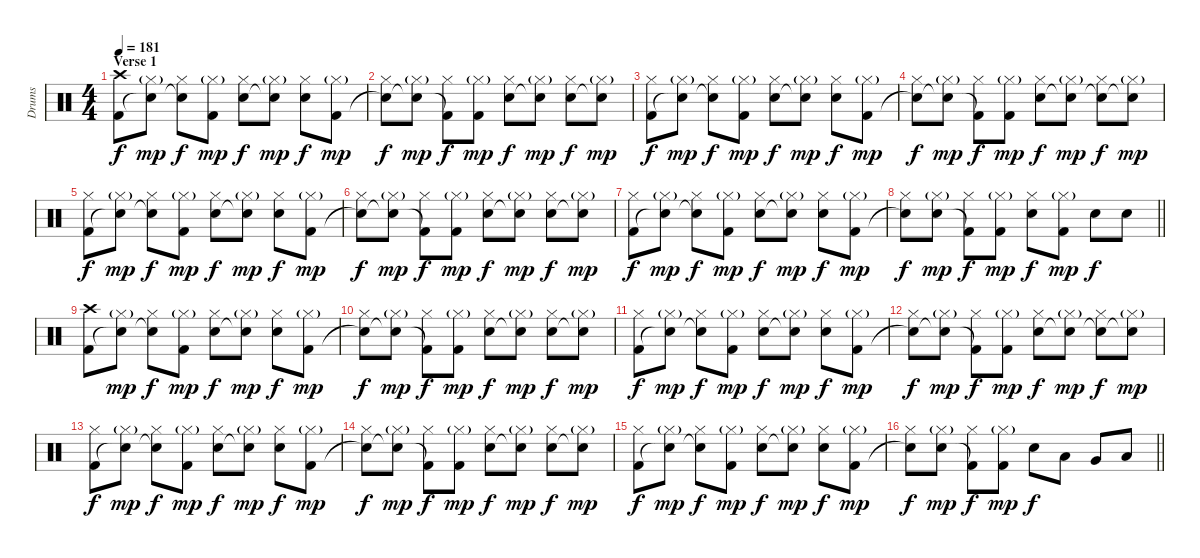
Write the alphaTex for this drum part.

\track ("Drums" "Drums") {instrument percussion}
\staff {score}
\articulation defaults
\ts (4 4)
\section ("" "Verse 1")
\tempo 181
\clef neutral
\ks c
("Kick (hit) 2" "Crash high (hit)").8{dy f} ("Snare (hit)"{t} "Hi-Hat (closed)"{g}).8{dy mp} ("Snare (hit)"{t} "Hi-Hat (closed)").8{dy f} ("Kick (hit) 2" "Hi-Hat (closed)"{g}).8{dy mp} ("Electric Snare (hit)" "Hi-Hat (closed)").8{dy f} ("Snare (hit)"{t} "Hi-Hat (closed)"{g}).8{dy mp} ("Electric Snare (hit)" "Hi-Hat (closed)").8{dy f} ("Kick (hit) 2" "Hi-Hat (closed)"{g}).8{dy mp} |
("Snare (hit)"{t} "Hi-Hat (closed)").8{dy f} ("Snare (hit)"{t} "Hi-Hat (closed)"{g}).8{dy mp} ("Kick (hit) 2"{t} "Hi-Hat (closed)").8{dy f} ("Kick (hit) 2" "Hi-Hat (closed)"{g}).8{dy mp} ("Electric Snare (hit)" "Hi-Hat (closed)").8{dy f} ("Electric Snare (hit)"{t} "Hi-Hat (closed)"{g}).8{dy mp} ("Electric Snare (hit)" "Hi-Hat (closed)").8{dy f} ("Snare (hit)"{t} "Hi-Hat (closed)"{g}).8{dy mp} |
("Kick (hit) 2" "Hi-Hat (closed)").8{dy f} ("Snare (hit)"{t} "Hi-Hat (closed)"{g}).8{dy mp} ("Snare (hit)"{t} "Hi-Hat (closed)").8{dy f} ("Kick (hit) 2" "Hi-Hat (closed)"{g}).8{dy mp} ("Electric Snare (hit)" "Hi-Hat (closed)").8{dy f} ("Snare (hit)"{t} "Hi-Hat (closed)"{g}).8{dy mp} ("Electric Snare (hit)" "Hi-Hat (closed)").8{dy f} ("Kick (hit) 2" "Hi-Hat (closed)"{g}).8{dy mp} |
("Snare (hit)"{t} "Hi-Hat (closed)").8{dy f} ("Snare (hit)"{t} "Hi-Hat (closed)"{g}).8{dy mp} ("Kick (hit) 2"{t} "Hi-Hat (closed)").8{dy f} ("Kick (hit) 2" "Hi-Hat (closed)"{g}).8{dy mp} ("Electric Snare (hit)" "Hi-Hat (closed)").8{dy f} ("Electric Snare (hit)"{t} "Hi-Hat (closed)"{g}).8{dy mp} ("Electric Snare (hit)"{t} "Hi-Hat (closed)").8{dy f} ("Snare (hit)"{t} "Hi-Hat (closed)"{g}).8{dy mp} |
("Kick (hit) 2" "Hi-Hat (closed)").8{dy f} ("Snare (hit)"{t} "Hi-Hat (closed)"{g}).8{dy mp} ("Snare (hit)"{t} "Hi-Hat (closed)").8{dy f} ("Kick (hit) 2" "Hi-Hat (closed)"{g}).8{dy mp} ("Electric Snare (hit)" "Hi-Hat (closed)").8{dy f} ("Snare (hit)"{t} "Hi-Hat (closed)"{g}).8{dy mp} ("Electric Snare (hit)" "Hi-Hat (closed)").8{dy f} ("Kick (hit) 2" "Hi-Hat (closed)"{g}).8{dy mp} |
("Snare (hit)"{t} "Hi-Hat (closed)").8{dy f} ("Snare (hit)"{t} "Hi-Hat (closed)"{g}).8{dy mp} ("Kick (hit) 2"{t} "Hi-Hat (closed)").8{dy f} ("Kick (hit) 2" "Hi-Hat (closed)"{g}).8{dy mp} ("Electric Snare (hit)" "Hi-Hat (closed)").8{dy f} ("Electric Snare (hit)"{t} "Hi-Hat (closed)"{g}).8{dy mp} ("Electric Snare (hit)" "Hi-Hat (closed)").8{dy f} ("Snare (hit)"{t} "Hi-Hat (closed)"{g}).8{dy mp} |
("Kick (hit) 2" "Hi-Hat (closed)").8{dy f} ("Snare (hit)"{t} "Hi-Hat (closed)"{g}).8{dy mp} ("Snare (hit)"{t} "Hi-Hat (closed)").8{dy f} ("Kick (hit) 2" "Hi-Hat (closed)"{g}).8{dy mp} ("Electric Snare (hit)" "Hi-Hat (closed)").8{dy f} ("Snare (hit)"{t} "Hi-Hat (closed)"{g}).8{dy mp} ("Electric Snare (hit)" "Hi-Hat (closed)").8{dy f} ("Kick (hit) 2" "Hi-Hat (closed)"{g}).8{dy mp} |
\barLineRight lightlight
("Snare (hit)"{t} "Hi-Hat (closed)").8{dy f} ("Electric Snare (hit)" "Hi-Hat (closed)"{g}).8{dy mp} ("Kick (hit) 2"{t} "Hi-Hat (closed)").8{dy f} ("Kick (hit) 2" "Hi-Hat (closed)"{g}).8{dy mp} ("Electric Snare (hit)" "Hi-Hat (closed)").8{dy f} ("Kick (hit) 2" "Hi-Hat (closed)"{g}).8{dy mp} "Electric Snare (hit)".8{dy f} "Electric Snare (hit)".8 |
("Kick (hit) 2" "Crash high (hit)").8 ("Snare (hit)"{t} "Hi-Hat (closed)"{g}).8{dy mp} ("Snare (hit)"{t} "Hi-Hat (closed)").8{dy f} ("Kick (hit) 2" "Hi-Hat (closed)"{g}).8{dy mp} ("Electric Snare (hit)" "Hi-Hat (closed)").8{dy f} ("Snare (hit)"{t} "Hi-Hat (closed)"{g}).8{dy mp} ("Electric Snare (hit)" "Hi-Hat (closed)").8{dy f} ("Kick (hit) 2" "Hi-Hat (closed)"{g}).8{dy mp} |
("Snare (hit)"{t} "Hi-Hat (closed)").8{dy f} ("Snare (hit)"{t} "Hi-Hat (closed)"{g}).8{dy mp} ("Kick (hit) 2"{t} "Hi-Hat (closed)").8{dy f} ("Kick (hit) 2" "Hi-Hat (closed)"{g}).8{dy mp} ("Electric Snare (hit)" "Hi-Hat (closed)").8{dy f} ("Electric Snare (hit)"{t} "Hi-Hat (closed)"{g}).8{dy mp} ("Electric Snare (hit)" "Hi-Hat (closed)").8{dy f} ("Snare (hit)"{t} "Hi-Hat (closed)"{g}).8{dy mp} |
("Kick (hit) 2" "Hi-Hat (closed)").8{dy f} ("Snare (hit)"{t} "Hi-Hat (closed)"{g}).8{dy mp} ("Snare (hit)"{t} "Hi-Hat (closed)").8{dy f} ("Kick (hit) 2" "Hi-Hat (closed)"{g}).8{dy mp} ("Electric Snare (hit)" "Hi-Hat (closed)").8{dy f} ("Snare (hit)"{t} "Hi-Hat (closed)"{g}).8{dy mp} ("Electric Snare (hit)" "Hi-Hat (closed)").8{dy f} ("Kick (hit) 2" "Hi-Hat (closed)"{g}).8{dy mp} |
("Snare (hit)"{t} "Hi-Hat (closed)").8{dy f} ("Snare (hit)"{t} "Hi-Hat (closed)"{g}).8{dy mp} ("Kick (hit) 2"{t} "Hi-Hat (closed)").8{dy f} ("Kick (hit) 2" "Hi-Hat (closed)"{g}).8{dy mp} ("Electric Snare (hit)" "Hi-Hat (closed)").8{dy f} ("Electric Snare (hit)"{t} "Hi-Hat (closed)"{g}).8{dy mp} ("Electric Snare (hit)"{t} "Hi-Hat (closed)").8{dy f} ("Snare (hit)"{t} "Hi-Hat (closed)"{g}).8{dy mp} |
("Kick (hit) 2" "Hi-Hat (closed)").8{dy f} ("Snare (hit)"{t} "Hi-Hat (closed)"{g}).8{dy mp} ("Snare (hit)"{t} "Hi-Hat (closed)").8{dy f} ("Kick (hit) 2" "Hi-Hat (closed)"{g}).8{dy mp} ("Electric Snare (hit)" "Hi-Hat (closed)").8{dy f} ("Snare (hit)"{t} "Hi-Hat (closed)"{g}).8{dy mp} ("Electric Snare (hit)" "Hi-Hat (closed)").8{dy f} ("Kick (hit) 2" "Hi-Hat (closed)"{g}).8{dy mp} |
("Snare (hit)"{t} "Hi-Hat (closed)").8{dy f} ("Snare (hit)"{t} "Hi-Hat (closed)"{g}).8{dy mp} ("Kick (hit) 2"{t} "Hi-Hat (closed)").8{dy f} ("Kick (hit) 2" "Hi-Hat (closed)"{g}).8{dy mp} ("Electric Snare (hit)" "Hi-Hat (closed)").8{dy f} ("Electric Snare (hit)"{t} "Hi-Hat (closed)"{g}).8{dy mp} ("Electric Snare (hit)" "Hi-Hat (closed)").8{dy f} ("Snare (hit)"{t} "Hi-Hat (closed)"{g}).8{dy mp} |
("Kick (hit) 2" "Hi-Hat (closed)").8{dy f} ("Snare (hit)"{t} "Hi-Hat (closed)"{g}).8{dy mp} ("Snare (hit)"{t} "Hi-Hat (closed)").8{dy f} ("Kick (hit) 2" "Hi-Hat (closed)"{g}).8{dy mp} ("Electric Snare (hit)" "Hi-Hat (closed)").8{dy f} ("Snare (hit)"{t} "Hi-Hat (closed)"{g}).8{dy mp} ("Electric Snare (hit)" "Hi-Hat (closed)").8{dy f} ("Kick (hit) 2" "Hi-Hat (closed)"{g}).8{dy mp} |
\barLineRight lightlight
("Snare (hit)"{t} "Hi-Hat (closed)").8{dy f} ("Electric Snare (hit)" "Hi-Hat (closed)"{g}).8{dy mp} ("Kick (hit) 2"{t} "Hi-Hat (closed)").8{dy f} ("Kick (hit) 2" "Hi-Hat (closed)"{g}).8{dy mp} "Electric Snare (hit)".8{dy f} "Low Tom (hit)".8 "Very Low Tom (hit)".8 "Low Floor Tom (hit)".8
